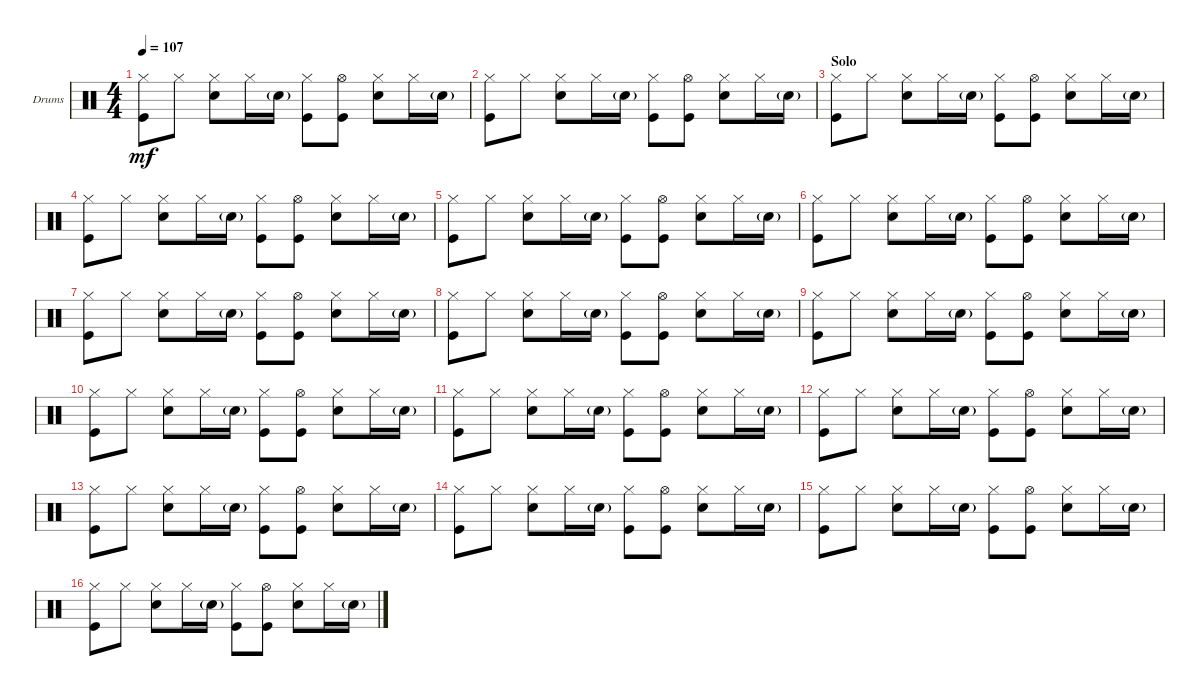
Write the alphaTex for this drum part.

\defaultSystemsLayout 4
\bracketExtendMode groupsimilarinstruments
\firstSystemTrackNameOrientation horizontal
\otherSystemsTrackNameOrientation horizontal
\track ("Drumkit" "Drums") {instrument percussion}
\staff {score}
\articulation defaults
\ts (4 4)
\tempo 107
\clef neutral
\ks c
("Kick (hit)" "Hi-Hat (closed)").8{dy mf} "Hi-Hat (closed)".8 ("Hi-Hat (closed)" "Snare (hit) 2").8 "Hi-Hat (closed)".16 "Snare (hit) 2"{g}.16 ("Hi-Hat (closed)" "Kick (hit)").8 ("Hi-Hat (open)" "Kick (hit)").8 ("Hi-Hat (closed)" "Snare (hit) 2").8 "Hi-Hat (closed)".16 "Snare (hit) 2"{g}.16 |
("Kick (hit)" "Hi-Hat (closed)").8 "Hi-Hat (closed)".8 ("Hi-Hat (closed)" "Snare (hit) 2").8 "Hi-Hat (closed)".16 "Snare (hit) 2"{g}.16 ("Hi-Hat (closed)" "Kick (hit)").8 ("Hi-Hat (open)" "Kick (hit)").8 ("Hi-Hat (closed)" "Snare (hit) 2").8 "Hi-Hat (closed)".16 "Snare (hit) 2"{g}.16 |
\section ("" "Solo")
("Kick (hit)" "Hi-Hat (closed)").8 "Hi-Hat (closed)".8 ("Hi-Hat (closed)" "Snare (hit) 2").8 "Hi-Hat (closed)".16 "Snare (hit) 2"{g}.16 ("Hi-Hat (closed)" "Kick (hit)").8 ("Hi-Hat (open)" "Kick (hit)").8 ("Hi-Hat (closed)" "Snare (hit) 2").8 "Hi-Hat (closed)".16 "Snare (hit) 2"{g}.16 |
("Kick (hit)" "Hi-Hat (closed)").8 "Hi-Hat (closed)".8 ("Hi-Hat (closed)" "Snare (hit) 2").8 "Hi-Hat (closed)".16 "Snare (hit) 2"{g}.16 ("Hi-Hat (closed)" "Kick (hit)").8 ("Hi-Hat (open)" "Kick (hit)").8 ("Hi-Hat (closed)" "Snare (hit) 2").8 "Hi-Hat (closed)".16 "Snare (hit) 2"{g}.16 |
("Kick (hit)" "Hi-Hat (closed)").8 "Hi-Hat (closed)".8 ("Hi-Hat (closed)" "Snare (hit) 2").8 "Hi-Hat (closed)".16 "Snare (hit) 2"{g}.16 ("Hi-Hat (closed)" "Kick (hit)").8 ("Hi-Hat (open)" "Kick (hit)").8 ("Hi-Hat (closed)" "Snare (hit) 2").8 "Hi-Hat (closed)".16 "Snare (hit) 2"{g}.16 |
("Kick (hit)" "Hi-Hat (closed)").8 "Hi-Hat (closed)".8 ("Hi-Hat (closed)" "Snare (hit) 2").8 "Hi-Hat (closed)".16 "Snare (hit) 2"{g}.16 ("Hi-Hat (closed)" "Kick (hit)").8 ("Hi-Hat (open)" "Kick (hit)").8 ("Hi-Hat (closed)" "Snare (hit) 2").8 "Hi-Hat (closed)".16 "Snare (hit) 2"{g}.16 |
("Kick (hit)" "Hi-Hat (closed)").8 "Hi-Hat (closed)".8 ("Hi-Hat (closed)" "Snare (hit) 2").8 "Hi-Hat (closed)".16 "Snare (hit) 2"{g}.16 ("Hi-Hat (closed)" "Kick (hit)").8 ("Hi-Hat (open)" "Kick (hit)").8 ("Hi-Hat (closed)" "Snare (hit) 2").8 "Hi-Hat (closed)".16 "Snare (hit) 2"{g}.16 |
("Kick (hit)" "Hi-Hat (closed)").8 "Hi-Hat (closed)".8 ("Hi-Hat (closed)" "Snare (hit) 2").8 "Hi-Hat (closed)".16 "Snare (hit) 2"{g}.16 ("Hi-Hat (closed)" "Kick (hit)").8 ("Hi-Hat (open)" "Kick (hit)").8 ("Hi-Hat (closed)" "Snare (hit) 2").8 "Hi-Hat (closed)".16 "Snare (hit) 2"{g}.16 |
("Kick (hit)" "Hi-Hat (closed)").8 "Hi-Hat (closed)".8 ("Hi-Hat (closed)" "Snare (hit) 2").8 "Hi-Hat (closed)".16 "Snare (hit) 2"{g}.16 ("Hi-Hat (closed)" "Kick (hit)").8 ("Hi-Hat (open)" "Kick (hit)").8 ("Hi-Hat (closed)" "Snare (hit) 2").8 "Hi-Hat (closed)".16 "Snare (hit) 2"{g}.16 |
("Kick (hit)" "Hi-Hat (closed)").8 "Hi-Hat (closed)".8 ("Hi-Hat (closed)" "Snare (hit) 2").8 "Hi-Hat (closed)".16 "Snare (hit) 2"{g}.16 ("Hi-Hat (closed)" "Kick (hit)").8 ("Hi-Hat (open)" "Kick (hit)").8 ("Hi-Hat (closed)" "Snare (hit) 2").8 "Hi-Hat (closed)".16 "Snare (hit) 2"{g}.16 |
("Kick (hit)" "Hi-Hat (closed)").8 "Hi-Hat (closed)".8 ("Hi-Hat (closed)" "Snare (hit) 2").8 "Hi-Hat (closed)".16 "Snare (hit) 2"{g}.16 ("Hi-Hat (closed)" "Kick (hit)").8 ("Hi-Hat (open)" "Kick (hit)").8 ("Hi-Hat (closed)" "Snare (hit) 2").8 "Hi-Hat (closed)".16 "Snare (hit) 2"{g}.16 |
("Kick (hit)" "Hi-Hat (closed)").8 "Hi-Hat (closed)".8 ("Hi-Hat (closed)" "Snare (hit) 2").8 "Hi-Hat (closed)".16 "Snare (hit) 2"{g}.16 ("Hi-Hat (closed)" "Kick (hit)").8 ("Hi-Hat (open)" "Kick (hit)").8 ("Hi-Hat (closed)" "Snare (hit) 2").8 "Hi-Hat (closed)".16 "Snare (hit) 2"{g}.16 |
("Kick (hit)" "Hi-Hat (closed)").8 "Hi-Hat (closed)".8 ("Hi-Hat (closed)" "Snare (hit) 2").8 "Hi-Hat (closed)".16 "Snare (hit) 2"{g}.16 ("Hi-Hat (closed)" "Kick (hit)").8 ("Hi-Hat (open)" "Kick (hit)").8 ("Hi-Hat (closed)" "Snare (hit) 2").8 "Hi-Hat (closed)".16 "Snare (hit) 2"{g}.16 |
("Kick (hit)" "Hi-Hat (closed)").8 "Hi-Hat (closed)".8 ("Hi-Hat (closed)" "Snare (hit) 2").8 "Hi-Hat (closed)".16 "Snare (hit) 2"{g}.16 ("Hi-Hat (closed)" "Kick (hit)").8 ("Hi-Hat (open)" "Kick (hit)").8 ("Hi-Hat (closed)" "Snare (hit) 2").8 "Hi-Hat (closed)".16 "Snare (hit) 2"{g}.16 |
("Kick (hit)" "Hi-Hat (closed)").8 "Hi-Hat (closed)".8 ("Hi-Hat (closed)" "Snare (hit) 2").8 "Hi-Hat (closed)".16 "Snare (hit) 2"{g}.16 ("Hi-Hat (closed)" "Kick (hit)").8 ("Hi-Hat (open)" "Kick (hit)").8 ("Hi-Hat (closed)" "Snare (hit) 2").8 "Hi-Hat (closed)".16 "Snare (hit) 2"{g}.16 |
("Kick (hit)" "Hi-Hat (closed)").8 "Hi-Hat (closed)".8 ("Hi-Hat (closed)" "Snare (hit) 2").8 "Hi-Hat (closed)".16 "Snare (hit) 2"{g}.16 ("Hi-Hat (closed)" "Kick (hit)").8 ("Hi-Hat (open)" "Kick (hit)").8 ("Hi-Hat (closed)" "Snare (hit) 2").8 "Hi-Hat (closed)".16 "Snare (hit) 2"{g}.16
